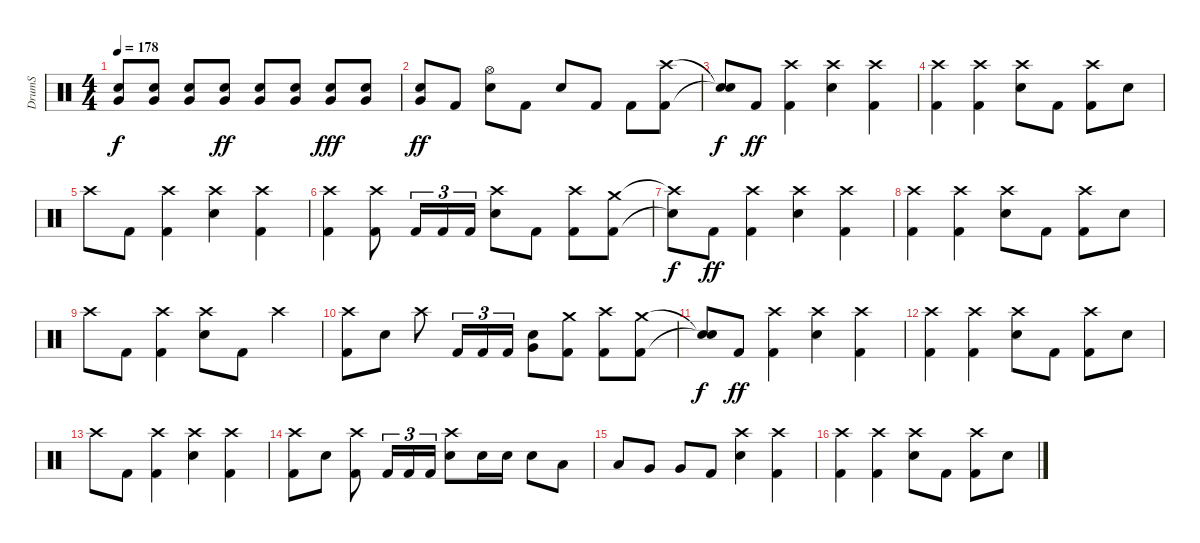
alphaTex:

\track ("DrumS" "DrumS") {instrument percussion}
\staff {score}
\articulation defaults
\ts (4 4)
\tempo 178
\clef neutral
\ks c
("Very Low Tom (hit)" "Electric Snare (hit)").8{dy f} ("Very Low Tom (hit)" "Electric Snare (hit)").8 ("Very Low Tom (hit)" "Electric Snare (hit)").8 ("Very Low Tom (hit)" "Electric Snare (hit)").8{dy ff} ("Very Low Tom (hit)" "Electric Snare (hit)").8 ("Very Low Tom (hit)" "Electric Snare (hit)").8 ("Very Low Tom (hit)" "Electric Snare (hit)").8{dy fff} ("Very Low Tom (hit)" "Electric Snare (hit)").8 |
("Very Low Tom (hit)" "Electric Snare (hit)").8{dy ff} "Kick (hit) 2".8 ("Hi-Hat (open)" "Electric Snare (hit)").8 "Kick (hit) 2".8 "Electric Snare (hit)".8 "Kick (hit) 2".8 "Kick (hit) 2".8 ("Crash high (hit)" "Kick (hit) 2").8 |
("Snare (hit)"{t} "Snare (hit)"{t}).8{dy f} "Kick (hit) 2".8{dy ff} ("Crash high (hit)" "Kick (hit) 2").4 ("Crash high (hit)" "Electric Snare (hit)").4 ("Crash high (hit)" "Kick (hit) 2").4 |
("Crash high (hit)" "Kick (hit) 2").4 ("Crash high (hit)" "Kick (hit) 2").4 ("Crash high (hit)" "Electric Snare (hit)").8 "Kick (hit) 2".8 ("Crash high (hit)" "Kick (hit) 2").8 "Electric Snare (hit)".8 |
"Crash high (hit)".8 "Kick (hit) 2".8 ("Crash high (hit)" "Kick (hit) 2").4 ("Crash high (hit)" "Electric Snare (hit)").4 ("Crash high (hit)" "Kick (hit) 2").4 |
("Crash high (hit)" "Kick (hit) 2").4 ("Crash high (hit)" "Kick (hit) 2").8 "Kick (hit) 2".16{tu (3 2)} "Kick (hit) 2".16{tu (3 2)} "Kick (hit) 2".16{tu (3 2)} ("Crash high (hit)" "Electric Snare (hit)").8 "Kick (hit) 2".8 ("Crash high (hit)" "Kick (hit) 2").8 ("Crash medium (hit)" "Kick (hit) 2").8 |
("Crash high (hit)"{t} "Snare (hit)"{t}).8{dy f} "Kick (hit) 2".8{dy ff} ("Crash high (hit)" "Kick (hit) 2").4 ("Crash high (hit)" "Electric Snare (hit)").4 ("Crash high (hit)" "Kick (hit) 2").4 |
("Crash high (hit)" "Kick (hit) 2").4 ("Crash high (hit)" "Kick (hit) 2").4 ("Crash high (hit)" "Electric Snare (hit)").8 "Kick (hit) 2".8 ("Crash high (hit)" "Kick (hit) 2").8 "Electric Snare (hit)".8 |
"Crash high (hit)".8 "Kick (hit) 2".8 ("Crash high (hit)" "Kick (hit) 2").4 ("Crash high (hit)" "Electric Snare (hit)").8 "Kick (hit) 2".8 "Crash high (hit)".4 |
("Crash high (hit)" "Kick (hit) 2").8 "Electric Snare (hit)".8 "Crash high (hit)".8 "Kick (hit) 2".16{tu (3 2)} "Kick (hit) 2".16{tu (3 2)} "Kick (hit) 2".16{tu (3 2)} ("Very Low Tom (hit)" "Electric Snare (hit)").8 ("Crash medium (hit)" "Kick (hit) 2").8 ("Crash high (hit)" "Kick (hit) 2").8 ("Crash medium (hit)" "Kick (hit) 2").8 |
("Snare (hit)"{t} "Snare (hit)"{t}).8{dy f} "Kick (hit) 2".8{dy ff} ("Crash high (hit)" "Kick (hit) 2").4 ("Crash high (hit)" "Electric Snare (hit)").4 ("Crash high (hit)" "Kick (hit) 2").4 |
("Crash high (hit)" "Kick (hit) 2").4 ("Crash high (hit)" "Kick (hit) 2").4 ("Crash high (hit)" "Electric Snare (hit)").8 "Kick (hit) 2".8 ("Crash high (hit)" "Kick (hit) 2").8 "Electric Snare (hit)".8 |
"Crash high (hit)".8 "Kick (hit) 2".8 ("Crash high (hit)" "Kick (hit) 2").4 ("Crash high (hit)" "Electric Snare (hit)").4 ("Crash high (hit)" "Kick (hit) 2").4 |
("Crash high (hit)" "Kick (hit) 2").8 "Electric Snare (hit)".8 ("Crash high (hit)" "Kick (hit) 2").8 "Kick (hit) 2".16{tu (3 2)} "Kick (hit) 2".16{tu (3 2)} "Kick (hit) 2".16{tu (3 2)} ("Crash high (hit)" "Electric Snare (hit)").8 "Electric Snare (hit)".16 "Electric Snare (hit)".16 "Electric Snare (hit)".8 "Low Tom (hit)".8 |
"Low Tom (hit)".8 "Very Low Tom (hit)".8 "Very Low Tom (hit)".8 "Kick (hit) 2".8 ("Crash high (hit)" "Electric Snare (hit)").4 ("Crash high (hit)" "Kick (hit) 2").4 |
("Crash high (hit)" "Kick (hit) 2").4 ("Crash high (hit)" "Kick (hit) 2").4 ("Crash high (hit)" "Electric Snare (hit)").8 "Kick (hit) 2".8 ("Crash high (hit)" "Kick (hit) 2").8 "Electric Snare (hit)".8
